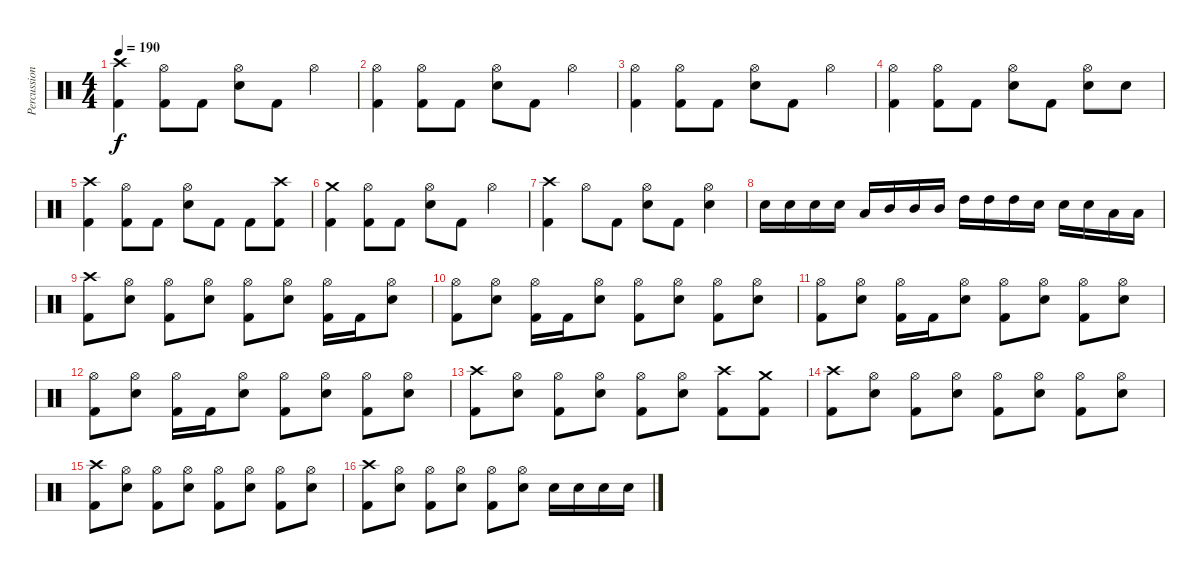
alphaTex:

\track ("Percussion" "Percussion") {instrument percussion}
\staff {score}
\articulation defaults
\ts (4 4)
\tempo 190
\clef neutral
\ks c
("Crash high (hit)" "Kick (hit) 2").4{dy f} ("Hi-Hat (open)" "Kick (hit) 2").8 "Kick (hit) 2".8 ("Hi-Hat (open)" "Snare (hit) 2").8 "Kick (hit) 2".8 "Hi-Hat (open)".4 |
("Hi-Hat (open)" "Kick (hit) 2").4 ("Hi-Hat (open)" "Kick (hit) 2").8 "Kick (hit) 2".8 ("Hi-Hat (open)" "Snare (hit) 2").8 "Kick (hit) 2".8 "Hi-Hat (open)".4 |
("Hi-Hat (open)" "Kick (hit) 2").4 ("Hi-Hat (open)" "Kick (hit) 2").8 "Kick (hit) 2".8 ("Hi-Hat (open)" "Snare (hit) 2").8 "Kick (hit) 2".8 "Hi-Hat (open)".4 |
("Hi-Hat (open)" "Kick (hit) 2").4 ("Hi-Hat (open)" "Kick (hit) 2").8 "Kick (hit) 2".8 ("Hi-Hat (open)" "Snare (hit) 2").8 "Kick (hit) 2".8 ("Hi-Hat (open)" "Snare (hit) 2").8 "Snare (hit) 2".8 |
("Crash high (hit)" "Kick (hit) 2").4 ("Hi-Hat (open)" "Kick (hit) 2").8 "Kick (hit) 2".8 ("Hi-Hat (open)" "Snare (hit) 2").8 "Kick (hit) 2".8 "Kick (hit) 2".8 ("Crash high (hit)" "Kick (hit) 2").8 |
("Crash medium (hit)" "Kick (hit) 2").4 ("Hi-Hat (open)" "Kick (hit) 2").8 "Kick (hit) 2".8 ("Hi-Hat (open)" "Snare (hit) 2").8 "Kick (hit) 2".8 "Hi-Hat (open)".4 |
("Crash high (hit)" "Kick (hit) 2").4 "Hi-Hat (open)".8 "Kick (hit) 2".8 ("Hi-Hat (open)" "Snare (hit) 2").8 "Kick (hit) 2".8 ("Hi-Hat (open)" "Snare (hit) 2").4 |
"Snare (hit) 2".16 "Snare (hit) 2".16 "Snare (hit) 2".16 "Snare (hit) 2".16 "Low Tom (hit)".16 "Mid Tom (hit)".16 "Mid Tom (hit)".16 "Mid Tom (hit)".16 "High Tom (hit)".16 "High Tom (hit)".16 "High Tom (hit)".16 "Snare (hit) 2".16 "Snare (hit) 2".16 "Snare (hit) 2".16 "Low Tom (hit)".16 "Low Tom (hit)".16 |
("Crash high (hit)" "Kick (hit) 2").8 ("Hi-Hat (open)" "Snare (hit) 2").8 ("Hi-Hat (open)" "Kick (hit) 2").8 ("Hi-Hat (open)" "Snare (hit) 2").8 ("Hi-Hat (open)" "Kick (hit) 2").8 ("Hi-Hat (open)" "Snare (hit) 2").8 ("Hi-Hat (open)" "Kick (hit) 2").16 "Kick (hit) 2".16 ("Hi-Hat (open)" "Snare (hit) 2").8 |
("Hi-Hat (open)" "Kick (hit) 2").8 ("Hi-Hat (open)" "Snare (hit) 2").8 ("Hi-Hat (open)" "Kick (hit) 2").16 "Kick (hit) 2".16 ("Hi-Hat (open)" "Snare (hit) 2").8 ("Hi-Hat (open)" "Kick (hit) 2").8 ("Hi-Hat (open)" "Snare (hit) 2").8 ("Hi-Hat (open)" "Kick (hit) 2").8 ("Hi-Hat (open)" "Snare (hit) 2").8 |
("Hi-Hat (open)" "Kick (hit) 2").8 ("Hi-Hat (open)" "Snare (hit) 2").8 ("Hi-Hat (open)" "Kick (hit) 2").16 "Kick (hit) 2".16 ("Hi-Hat (open)" "Snare (hit) 2").8 ("Hi-Hat (open)" "Kick (hit) 2").8 ("Hi-Hat (open)" "Snare (hit) 2").8 ("Hi-Hat (open)" "Kick (hit) 2").8 ("Hi-Hat (open)" "Snare (hit) 2").8 |
("Hi-Hat (open)" "Kick (hit) 2").8 ("Hi-Hat (open)" "Snare (hit) 2").8 ("Hi-Hat (open)" "Kick (hit) 2").16 "Kick (hit) 2".16 ("Hi-Hat (open)" "Snare (hit) 2").8 ("Hi-Hat (open)" "Kick (hit) 2").8 ("Hi-Hat (open)" "Snare (hit) 2").8 ("Hi-Hat (open)" "Kick (hit) 2").8 ("Hi-Hat (open)" "Snare (hit) 2").8 |
("Crash high (hit)" "Kick (hit) 2").8 ("Hi-Hat (open)" "Snare (hit) 2").8 ("Hi-Hat (open)" "Kick (hit) 2").8 ("Hi-Hat (open)" "Snare (hit) 2").8 ("Hi-Hat (open)" "Kick (hit) 2").8 ("Hi-Hat (open)" "Snare (hit) 2").8 ("Crash high (hit)" "Kick (hit) 2").8 ("Crash medium (hit)" "Kick (hit) 2").8 |
("Crash high (hit)" "Kick (hit) 2").8 ("Hi-Hat (open)" "Snare (hit) 2").8 ("Hi-Hat (open)" "Kick (hit) 2").8 ("Hi-Hat (open)" "Snare (hit) 2").8 ("Hi-Hat (open)" "Kick (hit) 2").8 ("Hi-Hat (open)" "Snare (hit) 2").8 ("Hi-Hat (open)" "Kick (hit) 2").8 ("Hi-Hat (open)" "Snare (hit) 2").8 |
("Crash high (hit)" "Kick (hit) 2").8 ("Hi-Hat (open)" "Snare (hit) 2").8 ("Hi-Hat (open)" "Kick (hit) 2").8 ("Hi-Hat (open)" "Snare (hit) 2").8 ("Hi-Hat (open)" "Kick (hit) 2").8 ("Hi-Hat (open)" "Snare (hit) 2").8 ("Hi-Hat (open)" "Kick (hit) 2").8 ("Hi-Hat (open)" "Snare (hit) 2").8 |
("Crash high (hit)" "Kick (hit) 2").8 ("Hi-Hat (open)" "Snare (hit) 2").8 ("Hi-Hat (open)" "Kick (hit) 2").8 ("Hi-Hat (open)" "Snare (hit) 2").8 ("Hi-Hat (open)" "Kick (hit) 2").8 ("Hi-Hat (open)" "Snare (hit) 2").8 "Snare (hit) 2".16 "Snare (hit) 2".16 "Snare (hit) 2".16 "Snare (hit) 2".16
